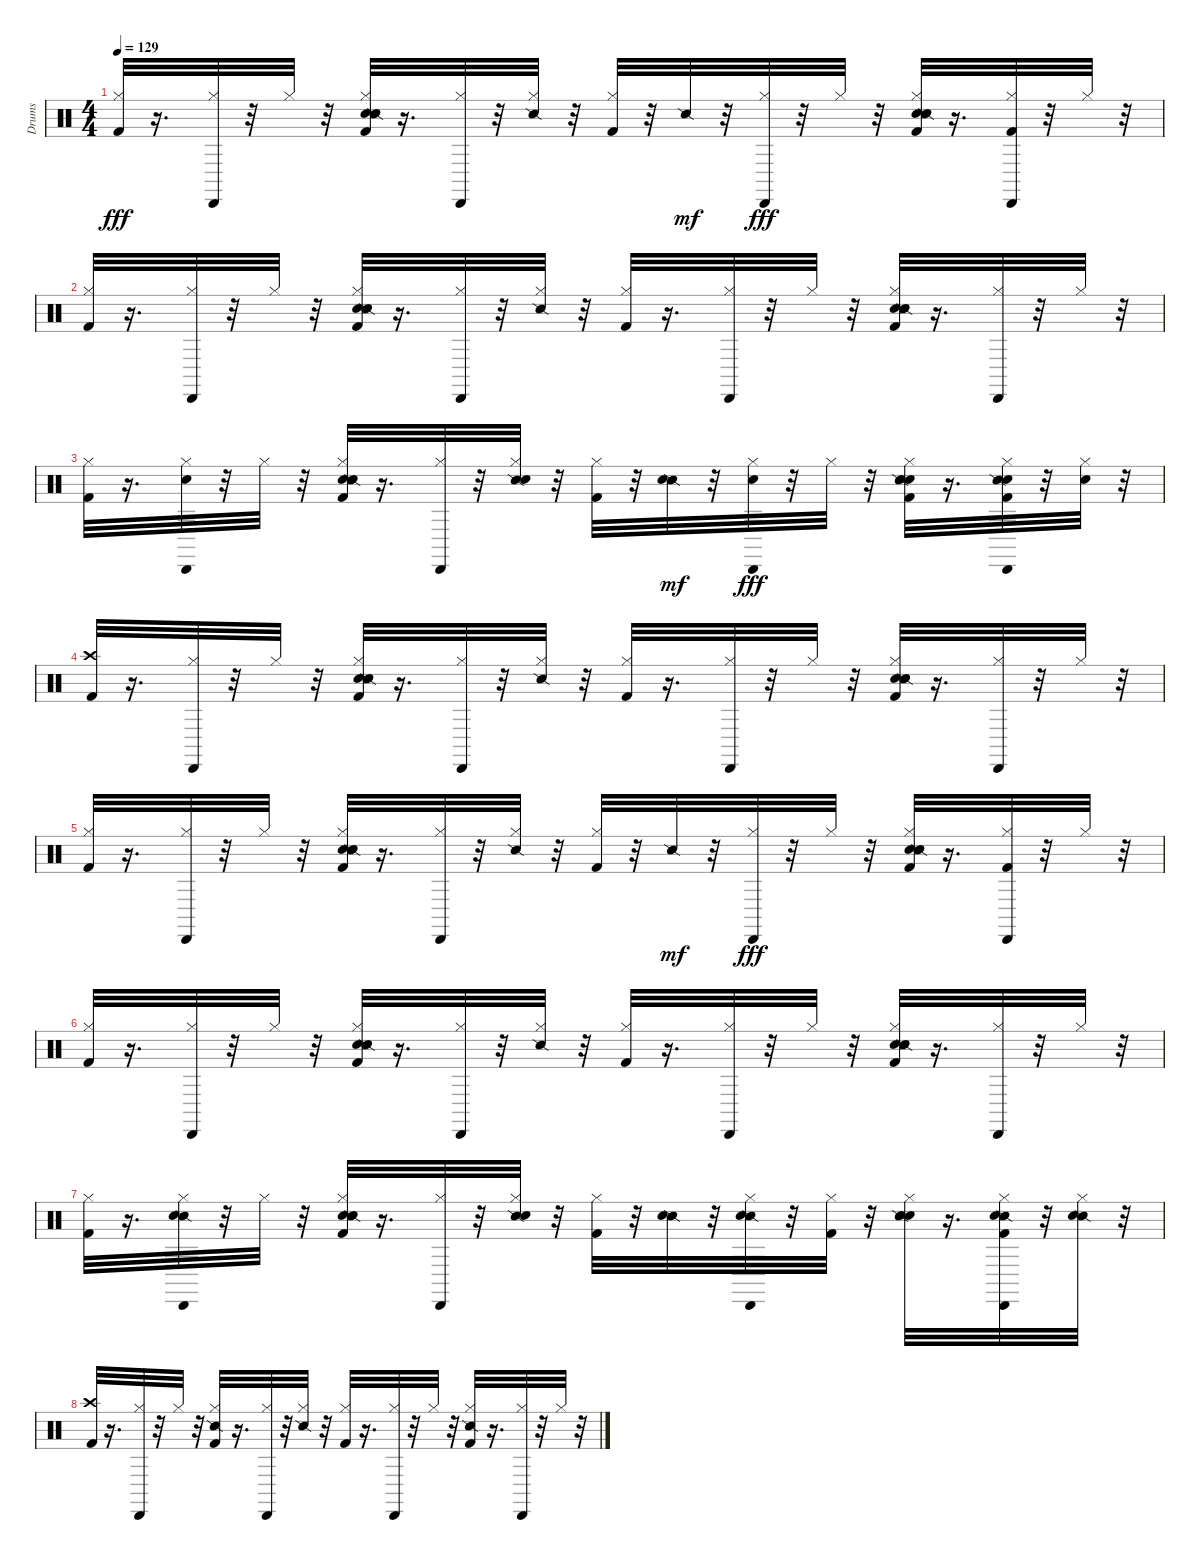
\track ("Drums" "Drums") {instrument percussion}
\staff {score}
\articulation defaults
\ts (4 4)
\tempo 129
\clef neutral
\ks c
("Kick (hit) 2" "Hi-Hat (closed)").32{dy fff} r.16{d} ("Cabasa (hit)" "Hi-Hat (closed)").32 r.32 "Hi-Hat (closed)".32 r.32 ("Snare (hit)" "Hand Clap (hit)" "Snare (side stick) 2" "Hi-Hat (closed)" "Kick (hit) 2").32 r.16{d} ("Cabasa (hit)" "Hi-Hat (closed)").32 r.32 ("Snare (side stick) 2" "Hi-Hat (closed)").32 r.32 ("Kick (hit) 2" "Hi-Hat (closed)").32 r.32 "Snare (side stick) 2".32{dy mf} r.32 ("Cabasa (hit)" "Hi-Hat (closed)").32{dy fff} r.32 "Hi-Hat (closed)".32 r.32 ("Snare (hit)" "Hand Clap (hit)" "Snare (side stick) 2" "Hi-Hat (closed)" "Kick (hit) 2").32 r.16{d} ("Kick (hit) 2" "Cabasa (hit)" "Hi-Hat (closed)").32 r.32 "Hi-Hat (closed)".32 r.32 |
("Kick (hit) 2" "Hi-Hat (closed)").32 r.16{d} ("Cabasa (hit)" "Hi-Hat (closed)").32 r.32 "Hi-Hat (closed)".32 r.32 ("Snare (hit)" "Snare (side stick) 2" "Hi-Hat (closed)" "Kick (hit) 2" "Hand Clap (hit)").32 r.16{d} ("Cabasa (hit)" "Hi-Hat (closed)").32 r.32 ("Snare (side stick) 2" "Hi-Hat (closed)").32 r.32 ("Kick (hit) 2" "Hi-Hat (closed)").32 r.16{d} ("Cabasa (hit)" "Hi-Hat (closed)").32 r.32 "Hi-Hat (closed)".32 r.32 ("Snare (hit)" "Snare (side stick) 2" "Hi-Hat (closed)" "Kick (hit) 2" "Hand Clap (hit)").32 r.16{d} ("Cabasa (hit)" "Hi-Hat (closed)").32 r.32 "Hi-Hat (closed)".32 r.32 |
("Kick (hit) 2" "Hi-Hat (closed)").32 r.16{d} ("Cabasa (hit)" "Hi-Hat (closed)" "Hand Clap (hit)").32 r.32 "Hi-Hat (closed)".32 r.32 ("Snare (hit)" "Snare (side stick) 2" "Hi-Hat (closed)" "Kick (hit) 2" "Hand Clap (hit)").32 r.16{d} ("Cabasa (hit)" "Hi-Hat (closed)").32 r.32 ("Snare (side stick) 2" "Hi-Hat (closed)" "Hand Clap (hit)").32 r.32 ("Kick (hit) 2" "Hi-Hat (closed)").32 r.32 ("Snare (side stick) 2" "Hand Clap (hit)").32{dy mf} r.32 ("Cabasa (hit)" "Hi-Hat (closed)" "Hand Clap (hit)").32{dy fff} r.32 "Hi-Hat (closed)".32 r.32 ("Snare (hit)" "Snare (side stick) 2" "Hi-Hat (closed)" "Kick (hit) 2" "Hand Clap (hit)").32 r.16{d} ("Kick (hit) 2" "Cabasa (hit)" "Hi-Hat (closed)" "Hand Clap (hit)" "Snare (side stick) 2").32 r.32 ("Hi-Hat (closed)" "Hand Clap (hit)").32 r.32 |
("Kick (hit) 2" "Crash high (hit)").32 r.16{d} ("Cabasa (hit)" "Hi-Hat (closed)").32 r.32 "Hi-Hat (closed)".32 r.32 ("Snare (hit)" "Hand Clap (hit)" "Snare (side stick) 2" "Hi-Hat (closed)" "Kick (hit) 2").32 r.16{d} ("Cabasa (hit)" "Hi-Hat (closed)").32 r.32 ("Snare (side stick) 2" "Hi-Hat (closed)").32 r.32 ("Kick (hit) 2" "Hi-Hat (closed)").32 r.16{d} ("Cabasa (hit)" "Hi-Hat (closed)").32 r.32 "Hi-Hat (closed)".32 r.32 ("Snare (hit)" "Hand Clap (hit)" "Snare (side stick) 2" "Hi-Hat (closed)" "Kick (hit) 2").32 r.16{d} ("Cabasa (hit)" "Hi-Hat (closed)").32 r.32 "Hi-Hat (closed)".32 r.32 |
("Kick (hit) 2" "Hi-Hat (closed)").32 r.16{d} ("Cabasa (hit)" "Hi-Hat (closed)").32 r.32 "Hi-Hat (closed)".32 r.32 ("Snare (hit)" "Hand Clap (hit)" "Snare (side stick) 2" "Hi-Hat (closed)" "Kick (hit) 2").32 r.16{d} ("Cabasa (hit)" "Hi-Hat (closed)").32 r.32 ("Snare (side stick) 2" "Hi-Hat (closed)").32 r.32 ("Kick (hit) 2" "Hi-Hat (closed)").32 r.32 "Snare (side stick) 2".32{dy mf} r.32 ("Cabasa (hit)" "Hi-Hat (closed)").32{dy fff} r.32 "Hi-Hat (closed)".32 r.32 ("Snare (hit)" "Hand Clap (hit)" "Snare (side stick) 2" "Hi-Hat (closed)" "Kick (hit) 2").32 r.16{d} ("Kick (hit) 2" "Cabasa (hit)" "Hi-Hat (closed)").32 r.32 "Hi-Hat (closed)".32 r.32 |
("Kick (hit) 2" "Hi-Hat (closed)").32 r.16{d} ("Cabasa (hit)" "Hi-Hat (closed)").32 r.32 "Hi-Hat (closed)".32 r.32 ("Snare (hit)" "Snare (side stick) 2" "Hi-Hat (closed)" "Kick (hit) 2" "Hand Clap (hit)").32 r.16{d} ("Cabasa (hit)" "Hi-Hat (closed)").32 r.32 ("Snare (side stick) 2" "Hi-Hat (closed)").32 r.32 ("Kick (hit) 2" "Hi-Hat (closed)").32 r.16{d} ("Cabasa (hit)" "Hi-Hat (closed)").32 r.32 "Hi-Hat (closed)".32 r.32 ("Snare (hit)" "Snare (side stick) 2" "Hi-Hat (closed)" "Kick (hit) 2" "Hand Clap (hit)").32 r.16{d} ("Cabasa (hit)" "Hi-Hat (closed)").32 r.32 "Hi-Hat (closed)".32 r.32 |
("Kick (hit) 2" "Hi-Hat (closed)").32 r.16{d} ("Snare (side stick) 2" "Cabasa (hit)" "Hi-Hat (closed)" "Hand Clap (hit)").32 r.32 "Hi-Hat (closed)".32 r.32 ("Snare (hit)" "Snare (side stick) 2" "Hi-Hat (closed)" "Kick (hit) 2" "Hand Clap (hit)").32 r.16{d} ("Cabasa (hit)" "Hi-Hat (closed)").32 r.32 ("Snare (side stick) 2" "Hi-Hat (closed)" "Hand Clap (hit)").32 r.32 ("Kick (hit) 2" "Hi-Hat (closed)").32 r.32 ("Snare (side stick) 2" "Hand Clap (hit)").32 r.32 ("Snare (side stick) 2" "Cabasa (hit)" "Hi-Hat (closed)" "Hand Clap (hit)").32 r.32 ("Hi-Hat (closed)" "Kick (hit) 2").32 r.32 ("Snare (hit)" "Snare (side stick) 2" "Hi-Hat (closed)" "Hand Clap (hit)").32 r.16{d} ("Snare (side stick) 2" "Kick (hit) 2" "Cabasa (hit)" "Hi-Hat (closed)" "Hand Clap (hit)").32 r.32 ("Snare (side stick) 2" "Hi-Hat (closed)" "Hand Clap (hit)").32 r.32 |
("Kick (hit) 2" "Crash high (hit)").32 r.16{d} ("Cabasa (hit)" "Hi-Hat (closed)").32 r.32 "Hi-Hat (closed)".32 r.32 ("Snare (side stick) 2" "Hi-Hat (closed)" "Kick (hit) 2").32 r.16{d} ("Cabasa (hit)" "Hi-Hat (closed)").32 r.32 ("Snare (side stick) 2" "Hi-Hat (closed)").32 r.32 ("Kick (hit) 2" "Hi-Hat (closed)").32 r.16{d} ("Cabasa (hit)" "Hi-Hat (closed)").32 r.32 "Hi-Hat (closed)".32 r.32 ("Snare (side stick) 2" "Hi-Hat (closed)" "Kick (hit) 2").32 r.16{d} ("Cabasa (hit)" "Hi-Hat (closed)").32 r.32 "Hi-Hat (closed)".32 r.32
